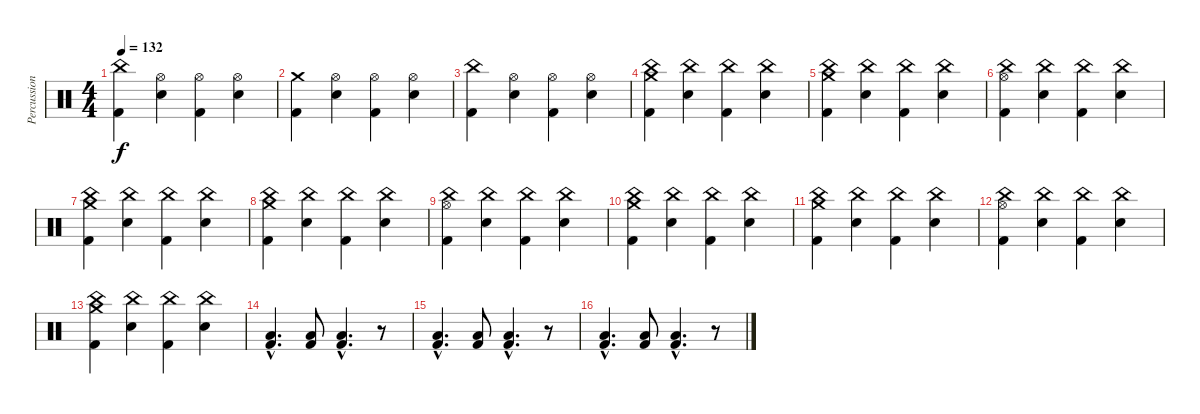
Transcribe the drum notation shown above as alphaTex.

\track ("Percussioni" "Percussion") {instrument percussion}
\staff {score}
\articulation defaults
\ts (4 4)
\tempo 132
\clef neutral
\ks c
("China (hit)" "Kick (hit) 2").4{dy f} ("Hi-Hat (open)" "Snare (hit) 2").4 ("Hi-Hat (open)" "Kick (hit) 2").4 ("Hi-Hat (open)" "Snare (hit) 2").4 |
("Crash medium (hit)" "Kick (hit) 2").4 ("Hi-Hat (open)" "Snare (hit) 2").4 ("Hi-Hat (open)" "Kick (hit) 2").4 ("Hi-Hat (open)" "Snare (hit) 2").4 |
("China (hit)" "Kick (hit) 2").4 ("Hi-Hat (open)" "Snare (hit) 2").4 ("Hi-Hat (open)" "Kick (hit) 2").4 ("Hi-Hat (open)" "Snare (hit) 2").4 |
("Crash medium (hit)" "China (hit)" "Kick (hit) 2").4 ("China (hit)" "Snare (hit) 2").4 ("China (hit)" "Kick (hit) 2").4 ("China (hit)" "Snare (hit) 2").4 |
("Crash medium (hit)" "China (hit)" "Kick (hit) 2").4 ("China (hit)" "Snare (hit) 2").4 ("China (hit)" "Kick (hit) 2").4 ("China (hit)" "Snare (hit) 2").4 |
("Hi-Hat (open)" "China (hit)" "Kick (hit) 2").4 ("China (hit)" "Snare (hit) 2").4 ("China (hit)" "Kick (hit) 2").4 ("China (hit)" "Snare (hit) 2").4 |
("Crash medium (hit)" "China (hit)" "Kick (hit) 2").4 ("China (hit)" "Snare (hit) 2").4 ("China (hit)" "Kick (hit) 2").4 ("China (hit)" "Snare (hit) 2").4 |
("Crash medium (hit)" "China (hit)" "Kick (hit) 2").4 ("China (hit)" "Snare (hit) 2").4 ("China (hit)" "Kick (hit) 2").4 ("China (hit)" "Snare (hit) 2").4 |
("Hi-Hat (open)" "China (hit)" "Kick (hit) 2").4 ("China (hit)" "Snare (hit) 2").4 ("China (hit)" "Kick (hit) 2").4 ("China (hit)" "Snare (hit) 2").4 |
("Crash medium (hit)" "China (hit)" "Kick (hit) 2").4 ("China (hit)" "Snare (hit) 2").4 ("China (hit)" "Kick (hit) 2").4 ("China (hit)" "Snare (hit) 2").4 |
("Crash medium (hit)" "China (hit)" "Kick (hit) 2").4 ("China (hit)" "Snare (hit) 2").4 ("China (hit)" "Kick (hit) 2").4 ("China (hit)" "Snare (hit) 2").4 |
("Hi-Hat (open)" "China (hit)" "Kick (hit) 2").4 ("China (hit)" "Snare (hit) 2").4 ("China (hit)" "Kick (hit) 2").4 ("China (hit)" "Snare (hit) 2").4 |
("Crash medium (hit)" "China (hit)" "Kick (hit) 2").4 ("China (hit)" "Snare (hit) 2").4 ("China (hit)" "Kick (hit) 2").4 ("China (hit)" "Snare (hit) 2").4 |
("Low Floor Tom (hit)"{hac} "Kick (hit) 2"{hac}).4{d} ("Low Floor Tom (hit)" "Kick (hit) 2").8 ("Low Floor Tom (hit)"{hac} "Kick (hit) 2"{hac}).4{d} r.8 |
("Low Floor Tom (hit)"{hac} "Kick (hit) 2"{hac}).4{d} ("Low Floor Tom (hit)" "Kick (hit) 2").8 ("Low Floor Tom (hit)"{hac} "Kick (hit) 2"{hac}).4{d} r.8 |
("Low Floor Tom (hit)"{hac} "Kick (hit) 2"{hac}).4{d} ("Low Floor Tom (hit)" "Kick (hit) 2").8 ("Low Floor Tom (hit)"{hac} "Kick (hit) 2"{hac}).4{d} r.8
